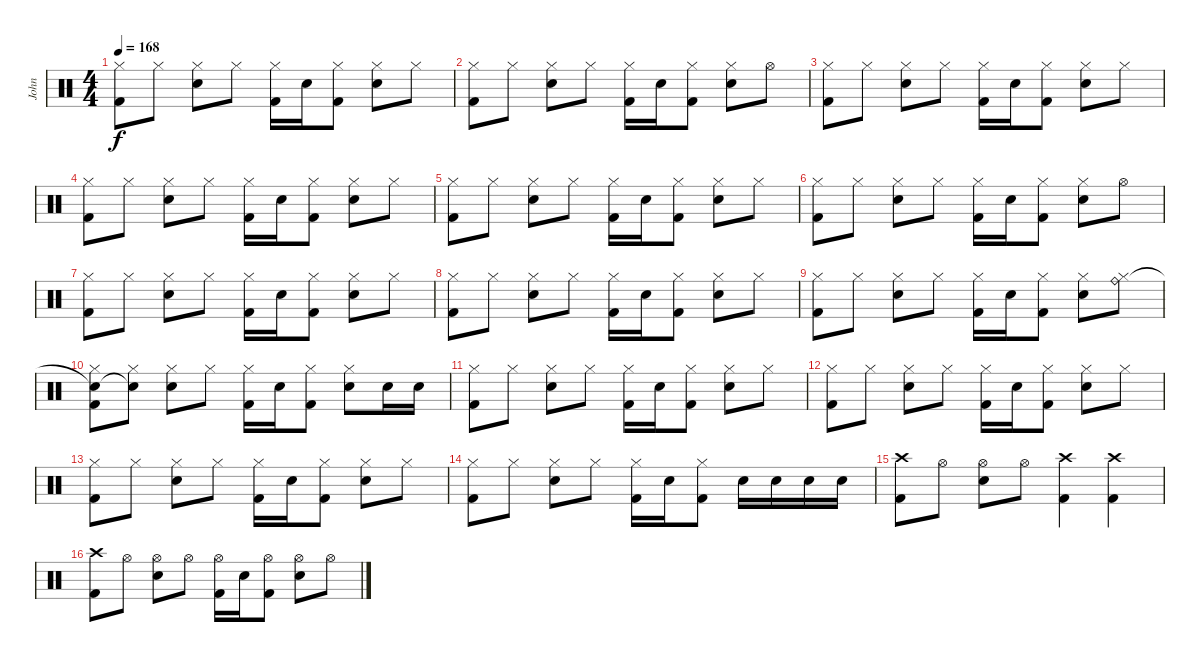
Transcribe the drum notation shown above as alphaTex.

\track ("John" "John") {instrument percussion}
\staff {score}
\articulation defaults
\ts (4 4)
\tempo 168
\clef neutral
\ks c
("Hi-Hat (closed)" "Kick (hit) 2").8{dy f} "Hi-Hat (closed)".8 ("Hi-Hat (closed)" "Electric Snare (hit)").8 "Hi-Hat (closed)".8 ("Hi-Hat (closed)" "Kick (hit) 2").16 "Electric Snare (hit)".16 ("Hi-Hat (closed)" "Kick (hit) 2").8 ("Hi-Hat (closed)" "Electric Snare (hit)").8 "Hi-Hat (closed)".8 |
("Hi-Hat (closed)" "Kick (hit) 2").8 "Hi-Hat (closed)".8 ("Hi-Hat (closed)" "Electric Snare (hit)").8 "Hi-Hat (closed)".8 ("Hi-Hat (closed)" "Kick (hit) 2").16 "Electric Snare (hit)".16 ("Hi-Hat (closed)" "Kick (hit) 2").8 ("Hi-Hat (closed)" "Electric Snare (hit)").8 "Hi-Hat (open)".8 |
("Hi-Hat (closed)" "Kick (hit) 2").8 "Hi-Hat (closed)".8 ("Hi-Hat (closed)" "Electric Snare (hit)").8 "Hi-Hat (closed)".8 ("Hi-Hat (closed)" "Kick (hit) 2").16 "Electric Snare (hit)".16 ("Hi-Hat (closed)" "Kick (hit) 2").8 ("Hi-Hat (closed)" "Electric Snare (hit)").8 "Hi-Hat (closed)".8 |
("Hi-Hat (closed)" "Kick (hit) 2").8 "Hi-Hat (closed)".8 ("Hi-Hat (closed)" "Electric Snare (hit)").8 "Hi-Hat (closed)".8 ("Hi-Hat (closed)" "Kick (hit) 2").16 "Electric Snare (hit)".16 ("Hi-Hat (closed)" "Kick (hit) 2").8 ("Hi-Hat (closed)" "Electric Snare (hit)").8 "Hi-Hat (closed)".8 |
("Hi-Hat (closed)" "Kick (hit) 2").8 "Hi-Hat (closed)".8 ("Hi-Hat (closed)" "Electric Snare (hit)").8 "Hi-Hat (closed)".8 ("Hi-Hat (closed)" "Kick (hit) 2").16 "Electric Snare (hit)".16 ("Hi-Hat (closed)" "Kick (hit) 2").8 ("Hi-Hat (closed)" "Electric Snare (hit)").8 "Hi-Hat (closed)".8 |
("Hi-Hat (closed)" "Kick (hit) 2").8 "Hi-Hat (closed)".8 ("Hi-Hat (closed)" "Electric Snare (hit)").8 "Hi-Hat (closed)".8 ("Hi-Hat (closed)" "Kick (hit) 2").16 "Electric Snare (hit)".16 ("Hi-Hat (closed)" "Kick (hit) 2").8 ("Hi-Hat (closed)" "Electric Snare (hit)").8 "Hi-Hat (open)".8 |
("Hi-Hat (closed)" "Kick (hit) 2").8 "Hi-Hat (closed)".8 ("Hi-Hat (closed)" "Electric Snare (hit)").8 "Hi-Hat (closed)".8 ("Hi-Hat (closed)" "Kick (hit) 2").16 "Electric Snare (hit)".16 ("Hi-Hat (closed)" "Kick (hit) 2").8 ("Hi-Hat (closed)" "Electric Snare (hit)").8 "Hi-Hat (closed)".8 |
("Hi-Hat (closed)" "Kick (hit) 2").8 "Hi-Hat (closed)".8 ("Hi-Hat (closed)" "Electric Snare (hit)").8 "Hi-Hat (closed)".8 ("Hi-Hat (closed)" "Kick (hit) 2").16 "Electric Snare (hit)".16 ("Hi-Hat (closed)" "Kick (hit) 2").8 ("Hi-Hat (closed)" "Electric Snare (hit)").8 "Hi-Hat (closed)".8 |
("Hi-Hat (closed)" "Kick (hit) 2").8 "Hi-Hat (closed)".8 ("Hi-Hat (closed)" "Electric Snare (hit)").8 "Hi-Hat (closed)".8 ("Hi-Hat (closed)" "Kick (hit) 2").16 "Electric Snare (hit)".16 ("Hi-Hat (closed)" "Kick (hit) 2").8 ("Hi-Hat (closed)" "Electric Snare (hit)").8 ("Ride (bell)" "Hi-Hat (closed)").8 |
("Snare (hit)"{t} "Hi-Hat (closed)" "Kick (hit) 2").8 ("Snare (hit)"{t} "Hi-Hat (closed)").8 ("Hi-Hat (closed)" "Electric Snare (hit)").8 "Hi-Hat (closed)".8 ("Hi-Hat (closed)" "Kick (hit) 2").16 "Electric Snare (hit)".16 ("Hi-Hat (closed)" "Kick (hit) 2").8 ("Hi-Hat (closed)" "Electric Snare (hit)").8 "Electric Snare (hit)".16 "Electric Snare (hit)".16 |
("Hi-Hat (closed)" "Kick (hit) 2").8 "Hi-Hat (closed)".8 ("Hi-Hat (closed)" "Electric Snare (hit)").8 "Hi-Hat (closed)".8 ("Hi-Hat (closed)" "Kick (hit) 2").16 "Electric Snare (hit)".16 ("Hi-Hat (closed)" "Kick (hit) 2").8 ("Hi-Hat (closed)" "Electric Snare (hit)").8 "Hi-Hat (closed)".8 |
("Hi-Hat (closed)" "Kick (hit) 2").8 "Hi-Hat (closed)".8 ("Hi-Hat (closed)" "Electric Snare (hit)").8 "Hi-Hat (closed)".8 ("Hi-Hat (closed)" "Kick (hit) 2").16 "Electric Snare (hit)".16 ("Hi-Hat (closed)" "Kick (hit) 2").8 ("Hi-Hat (closed)" "Electric Snare (hit)").8 "Hi-Hat (closed)".8 |
("Hi-Hat (closed)" "Kick (hit) 2").8 "Hi-Hat (closed)".8 ("Hi-Hat (closed)" "Electric Snare (hit)").8 "Hi-Hat (closed)".8 ("Hi-Hat (closed)" "Kick (hit) 2").16 "Electric Snare (hit)".16 ("Hi-Hat (closed)" "Kick (hit) 2").8 ("Hi-Hat (closed)" "Electric Snare (hit)").8 "Hi-Hat (closed)".8 |
("Hi-Hat (closed)" "Kick (hit) 2").8 "Hi-Hat (closed)".8 ("Hi-Hat (closed)" "Electric Snare (hit)").8 "Hi-Hat (closed)".8 ("Hi-Hat (closed)" "Kick (hit) 2").16 "Electric Snare (hit)".16 ("Hi-Hat (closed)" "Kick (hit) 2").8 "Electric Snare (hit)".16 "Electric Snare (hit)".16 "Electric Snare (hit)".16 "Electric Snare (hit)".16 |
("Crash high (hit)" "Kick (hit) 2").8 "Hi-Hat (open)".8 ("Hi-Hat (open)" "Electric Snare (hit)").8 "Hi-Hat (open)".8 ("Crash high (hit)" "Kick (hit) 2").4 ("Crash high (hit)" "Kick (hit) 2").4 |
("Crash high (hit)" "Kick (hit) 2").8 "Hi-Hat (open)".8 ("Hi-Hat (open)" "Electric Snare (hit)").8 "Hi-Hat (open)".8 ("Hi-Hat (open)" "Kick (hit) 2").16 "Electric Snare (hit)".16 ("Hi-Hat (open)" "Kick (hit) 2").8 ("Hi-Hat (open)" "Electric Snare (hit)").8 "Hi-Hat (open)".8
